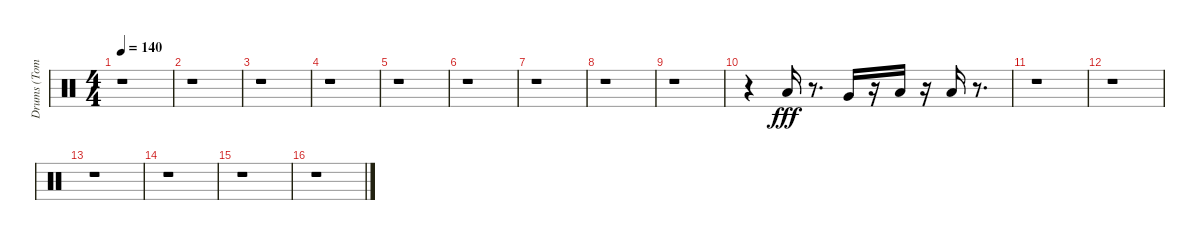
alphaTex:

\track ("Drums (Toms)" "Drums (Tom") {instrument percussion}
\staff {score}
\articulation defaults
\ts (4 4)
\tempo 140
\clef neutral
\ks c
r.1{dy fff} |
r.1 |
r.1 |
r.1 |
r.1 |
r.1 |
r.1 |
r.1 |
r.1 |
r.4 "Low Tom (hit)".16 r.8{d} "Very Low Tom (hit)".16 r.16 "Low Floor Tom (hit)".16 r.16 "Low Floor Tom (hit)".16 r.8{d} |
r.1 |
r.1 |
r.1 |
r.1 |
r.1 |
r.1
